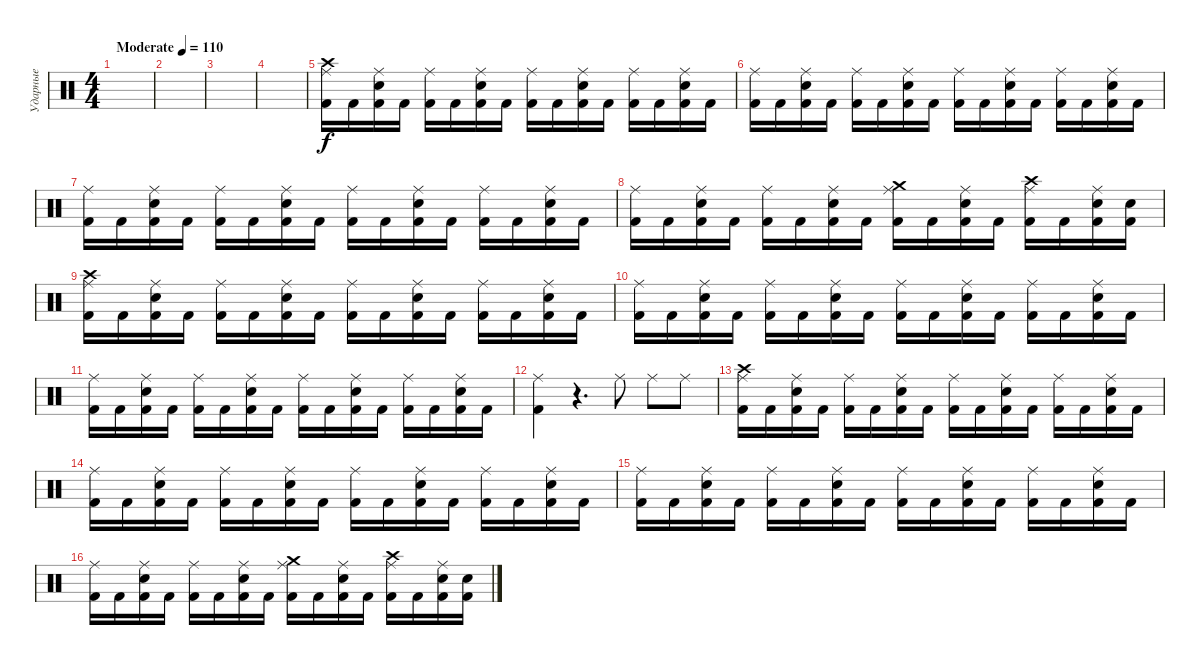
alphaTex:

\track ("Ударные" "Ударные") {instrument percussion}
\staff {score}
\articulation defaults
\ts (4 4)
\tempo (110 "Moderate")
\clef neutral
\ks c
|
|
|
|
("Ride (middle)" "Crash high (hit)" "Kick (hit) 2").16 "Kick (hit) 2".16 ("Ride (middle)" "Snare (hit) 2" "Kick (hit) 2").16 "Kick (hit) 2".16 ("Ride (middle)" "Kick (hit) 2").16 "Kick (hit) 2".16 ("Ride (middle)" "Snare (hit) 2" "Kick (hit) 2").16 "Kick (hit) 2".16 ("Ride (middle)" "Kick (hit) 2").16 "Kick (hit) 2".16 ("Ride (middle)" "Snare (hit) 2" "Kick (hit) 2").16 "Kick (hit) 2".16 ("Ride (middle)" "Kick (hit) 2").16 "Kick (hit) 2".16 ("Ride (middle)" "Snare (hit) 2" "Kick (hit) 2").16 "Kick (hit) 2".16 |
("Ride (middle)" "Kick (hit) 2").16 "Kick (hit) 2".16 ("Ride (middle)" "Snare (hit) 2" "Kick (hit) 2").16 "Kick (hit) 2".16 ("Ride (middle)" "Kick (hit) 2").16 "Kick (hit) 2".16 ("Ride (middle)" "Snare (hit) 2" "Kick (hit) 2").16 "Kick (hit) 2".16 ("Ride (middle)" "Kick (hit) 2").16 "Kick (hit) 2".16 ("Ride (middle)" "Snare (hit) 2" "Kick (hit) 2").16 "Kick (hit) 2".16 ("Ride (middle)" "Kick (hit) 2").16 "Kick (hit) 2".16 ("Ride (middle)" "Snare (hit) 2" "Kick (hit) 2").16 "Kick (hit) 2".16 |
("Ride (middle)" "Kick (hit) 2").16 "Kick (hit) 2".16 ("Ride (middle)" "Snare (hit) 2" "Kick (hit) 2").16 "Kick (hit) 2".16 ("Ride (middle)" "Kick (hit) 2").16 "Kick (hit) 2".16 ("Ride (middle)" "Snare (hit) 2" "Kick (hit) 2").16 "Kick (hit) 2".16 ("Ride (middle)" "Kick (hit) 2").16 "Kick (hit) 2".16 ("Ride (middle)" "Snare (hit) 2" "Kick (hit) 2").16 "Kick (hit) 2".16 ("Ride (middle)" "Kick (hit) 2").16 "Kick (hit) 2".16 ("Ride (middle)" "Snare (hit) 2" "Kick (hit) 2").16 "Kick (hit) 2".16 |
("Ride (middle)" "Kick (hit) 2").16 "Kick (hit) 2".16 ("Ride (middle)" "Snare (hit) 2" "Kick (hit) 2").16 "Kick (hit) 2".16 ("Ride (middle)" "Kick (hit) 2").16 "Kick (hit) 2".16 ("Ride (middle)" "Snare (hit) 2" "Kick (hit) 2").16 "Kick (hit) 2".16 ("Ride (middle)" "Crash medium (hit)" "Kick (hit) 2").16 "Kick (hit) 2".16 ("Ride (middle)" "Snare (hit) 2" "Kick (hit) 2").16 "Kick (hit) 2".16 ("Ride (middle)" "Crash high (hit)" "Kick (hit) 2").16 "Kick (hit) 2".16 ("Ride (middle)" "Snare (hit) 2" "Kick (hit) 2").16 ("Snare (hit) 2" "Kick (hit) 2").16 |
("Ride (middle)" "Crash high (hit)" "Kick (hit) 2").16 "Kick (hit) 2".16 ("Ride (middle)" "Snare (hit) 2" "Kick (hit) 2").16 "Kick (hit) 2".16 ("Ride (middle)" "Kick (hit) 2").16 "Kick (hit) 2".16 ("Ride (middle)" "Snare (hit) 2" "Kick (hit) 2").16 "Kick (hit) 2".16 ("Ride (middle)" "Kick (hit) 2").16 "Kick (hit) 2".16 ("Ride (middle)" "Snare (hit) 2" "Kick (hit) 2").16 "Kick (hit) 2".16 ("Ride (middle)" "Kick (hit) 2").16 "Kick (hit) 2".16 ("Ride (middle)" "Snare (hit) 2" "Kick (hit) 2").16 "Kick (hit) 2".16 |
("Ride (middle)" "Kick (hit) 2").16 "Kick (hit) 2".16 ("Ride (middle)" "Snare (hit) 2" "Kick (hit) 2").16 "Kick (hit) 2".16 ("Ride (middle)" "Kick (hit) 2").16 "Kick (hit) 2".16 ("Ride (middle)" "Snare (hit) 2" "Kick (hit) 2").16 "Kick (hit) 2".16 ("Ride (middle)" "Kick (hit) 2").16 "Kick (hit) 2".16 ("Ride (middle)" "Snare (hit) 2" "Kick (hit) 2").16 "Kick (hit) 2".16 ("Ride (middle)" "Kick (hit) 2").16 "Kick (hit) 2".16 ("Ride (middle)" "Snare (hit) 2" "Kick (hit) 2").16 "Kick (hit) 2".16 |
("Ride (middle)" "Kick (hit) 2").16 "Kick (hit) 2".16 ("Ride (middle)" "Snare (hit) 2" "Kick (hit) 2").16 "Kick (hit) 2".16 ("Ride (middle)" "Kick (hit) 2").16 "Kick (hit) 2".16 ("Ride (middle)" "Snare (hit) 2" "Kick (hit) 2").16 "Kick (hit) 2".16 ("Ride (middle)" "Kick (hit) 2").16 "Kick (hit) 2".16 ("Ride (middle)" "Snare (hit) 2" "Kick (hit) 2").16 "Kick (hit) 2".16 ("Ride (middle)" "Kick (hit) 2").16 "Kick (hit) 2".16 ("Ride (middle)" "Snare (hit) 2" "Kick (hit) 2").16 "Kick (hit) 2".16 |
("Ride (middle)" "Kick (hit) 2").4 r.4{d} "Ride (middle)".8 "Ride (middle)".8 "Ride (middle)".8 |
("Ride (middle)" "Crash high (hit)" "Kick (hit) 2").16 "Kick (hit) 2".16 ("Ride (middle)" "Snare (hit) 2" "Kick (hit) 2").16 "Kick (hit) 2".16 ("Ride (middle)" "Kick (hit) 2").16 "Kick (hit) 2".16 ("Ride (middle)" "Snare (hit) 2" "Kick (hit) 2").16 "Kick (hit) 2".16 ("Ride (middle)" "Kick (hit) 2").16 "Kick (hit) 2".16 ("Ride (middle)" "Snare (hit) 2" "Kick (hit) 2").16 "Kick (hit) 2".16 ("Ride (middle)" "Kick (hit) 2").16 "Kick (hit) 2".16 ("Ride (middle)" "Snare (hit) 2" "Kick (hit) 2").16 "Kick (hit) 2".16 |
("Ride (middle)" "Kick (hit) 2").16 "Kick (hit) 2".16 ("Ride (middle)" "Snare (hit) 2" "Kick (hit) 2").16 "Kick (hit) 2".16 ("Ride (middle)" "Kick (hit) 2").16 "Kick (hit) 2".16 ("Ride (middle)" "Snare (hit) 2" "Kick (hit) 2").16 "Kick (hit) 2".16 ("Ride (middle)" "Kick (hit) 2").16 "Kick (hit) 2".16 ("Ride (middle)" "Snare (hit) 2" "Kick (hit) 2").16 "Kick (hit) 2".16 ("Ride (middle)" "Kick (hit) 2").16 "Kick (hit) 2".16 ("Ride (middle)" "Snare (hit) 2" "Kick (hit) 2").16 "Kick (hit) 2".16 |
("Ride (middle)" "Kick (hit) 2").16 "Kick (hit) 2".16 ("Ride (middle)" "Snare (hit) 2" "Kick (hit) 2").16 "Kick (hit) 2".16 ("Ride (middle)" "Kick (hit) 2").16 "Kick (hit) 2".16 ("Ride (middle)" "Snare (hit) 2" "Kick (hit) 2").16 "Kick (hit) 2".16 ("Ride (middle)" "Kick (hit) 2").16 "Kick (hit) 2".16 ("Ride (middle)" "Snare (hit) 2" "Kick (hit) 2").16 "Kick (hit) 2".16 ("Ride (middle)" "Kick (hit) 2").16 "Kick (hit) 2".16 ("Ride (middle)" "Snare (hit) 2" "Kick (hit) 2").16 "Kick (hit) 2".16 |
("Ride (middle)" "Kick (hit) 2").16 "Kick (hit) 2".16 ("Ride (middle)" "Snare (hit) 2" "Kick (hit) 2").16 "Kick (hit) 2".16 ("Ride (middle)" "Kick (hit) 2").16 "Kick (hit) 2".16 ("Ride (middle)" "Snare (hit) 2" "Kick (hit) 2").16 "Kick (hit) 2".16 ("Ride (middle)" "Crash medium (hit)" "Kick (hit) 2").16 "Kick (hit) 2".16 ("Ride (middle)" "Snare (hit) 2" "Kick (hit) 2").16 "Kick (hit) 2".16 ("Ride (middle)" "Crash high (hit)" "Kick (hit) 2").16 "Kick (hit) 2".16 ("Ride (middle)" "Snare (hit) 2" "Kick (hit) 2").16 ("Snare (hit) 2" "Kick (hit) 2").16
